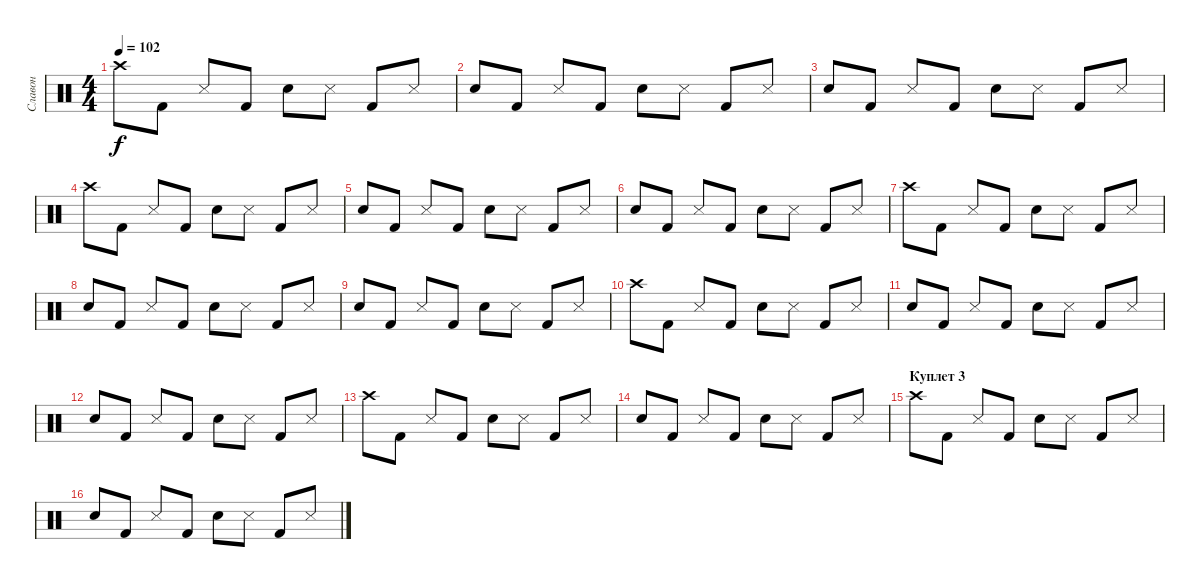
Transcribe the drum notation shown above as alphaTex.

\track ("Славон" "Славон") {instrument percussion}
\staff {score}
\articulation defaults
\ts (4 4)
\tempo 102
\clef neutral
\ks c "Crash high (hit)".8{dy f} "Kick (hit) 2".8 "Snare (side stick) 3".8 "Kick (hit) 2".8 "Snare (hit) 2".8 "Snare (side stick) 3".8 "Kick (hit) 2".8 "Snare (side stick) 3".8
|
"Snare (hit) 2".8 "Kick (hit) 2".8 "Snare (side stick) 3".8 "Kick (hit) 2".8 "Snare (hit) 2".8 "Snare (side stick) 3".8 "Kick (hit) 2".8 "Snare (side stick) 3".8 |
"Snare (hit) 2".8 "Kick (hit) 2".8 "Snare (side stick) 3".8 "Kick (hit) 2".8 "Snare (hit) 2".8 "Snare (side stick) 3".8 "Kick (hit) 2".8 "Snare (side stick) 3".8 |
"Crash high (hit)".8 "Kick (hit) 2".8 "Snare (side stick) 3".8 "Kick (hit) 2".8 "Snare (hit) 2".8 "Snare (side stick) 3".8 "Kick (hit) 2".8 "Snare (side stick) 3".8 |
"Snare (hit) 2".8 "Kick (hit) 2".8 "Snare (side stick) 3".8 "Kick (hit) 2".8 "Snare (hit) 2".8 "Snare (side stick) 3".8 "Kick (hit) 2".8 "Snare (side stick) 3".8 |
"Snare (hit) 2".8 "Kick (hit) 2".8 "Snare (side stick) 3".8 "Kick (hit) 2".8 "Snare (hit) 2".8 "Snare (side stick) 3".8 "Kick (hit) 2".8 "Snare (side stick) 3".8 |
"Crash high (hit)".8 "Kick (hit) 2".8 "Snare (side stick) 3".8 "Kick (hit) 2".8 "Snare (hit) 2".8 "Snare (side stick) 3".8 "Kick (hit) 2".8 "Snare (side stick) 3".8 |
"Snare (hit) 2".8 "Kick (hit) 2".8 "Snare (side stick) 3".8 "Kick (hit) 2".8 "Snare (hit) 2".8 "Snare (side stick) 3".8 "Kick (hit) 2".8 "Snare (side stick) 3".8 |
"Snare (hit) 2".8 "Kick (hit) 2".8 "Snare (side stick) 3".8 "Kick (hit) 2".8 "Snare (hit) 2".8 "Snare (side stick) 3".8 "Kick (hit) 2".8 "Snare (side stick) 3".8 |
"Crash high (hit)".8 "Kick (hit) 2".8 "Snare (side stick) 3".8 "Kick (hit) 2".8 "Snare (hit) 2".8 "Snare (side stick) 3".8 "Kick (hit) 2".8 "Snare (side stick) 3".8 |
"Snare (hit) 2".8 "Kick (hit) 2".8 "Snare (side stick) 3".8 "Kick (hit) 2".8 "Snare (hit) 2".8 "Snare (side stick) 3".8 "Kick (hit) 2".8 "Snare (side stick) 3".8 |
"Snare (hit) 2".8 "Kick (hit) 2".8 "Snare (side stick) 3".8 "Kick (hit) 2".8 "Snare (hit) 2".8 "Snare (side stick) 3".8 "Kick (hit) 2".8 "Snare (side stick) 3".8 |
"Crash high (hit)".8 "Kick (hit) 2".8 "Snare (side stick) 3".8 "Kick (hit) 2".8 "Snare (hit) 2".8 "Snare (side stick) 3".8 "Kick (hit) 2".8 "Snare (side stick) 3".8 |
"Snare (hit) 2".8 "Kick (hit) 2".8 "Snare (side stick) 3".8 "Kick (hit) 2".8 "Snare (hit) 2".8 "Snare (side stick) 3".8 "Kick (hit) 2".8 "Snare (side stick) 3".8 |
\section ("" "Куплет 3")
"Crash high (hit)".8 "Kick (hit) 2".8 "Snare (side stick) 3".8 "Kick (hit) 2".8 "Snare (hit) 2".8 "Snare (side stick) 3".8 "Kick (hit) 2".8 "Snare (side stick) 3".8 |
"Snare (hit) 2".8 "Kick (hit) 2".8 "Snare (side stick) 3".8 "Kick (hit) 2".8 "Snare (hit) 2".8 "Snare (side stick) 3".8 "Kick (hit) 2".8 "Snare (side stick) 3".8
